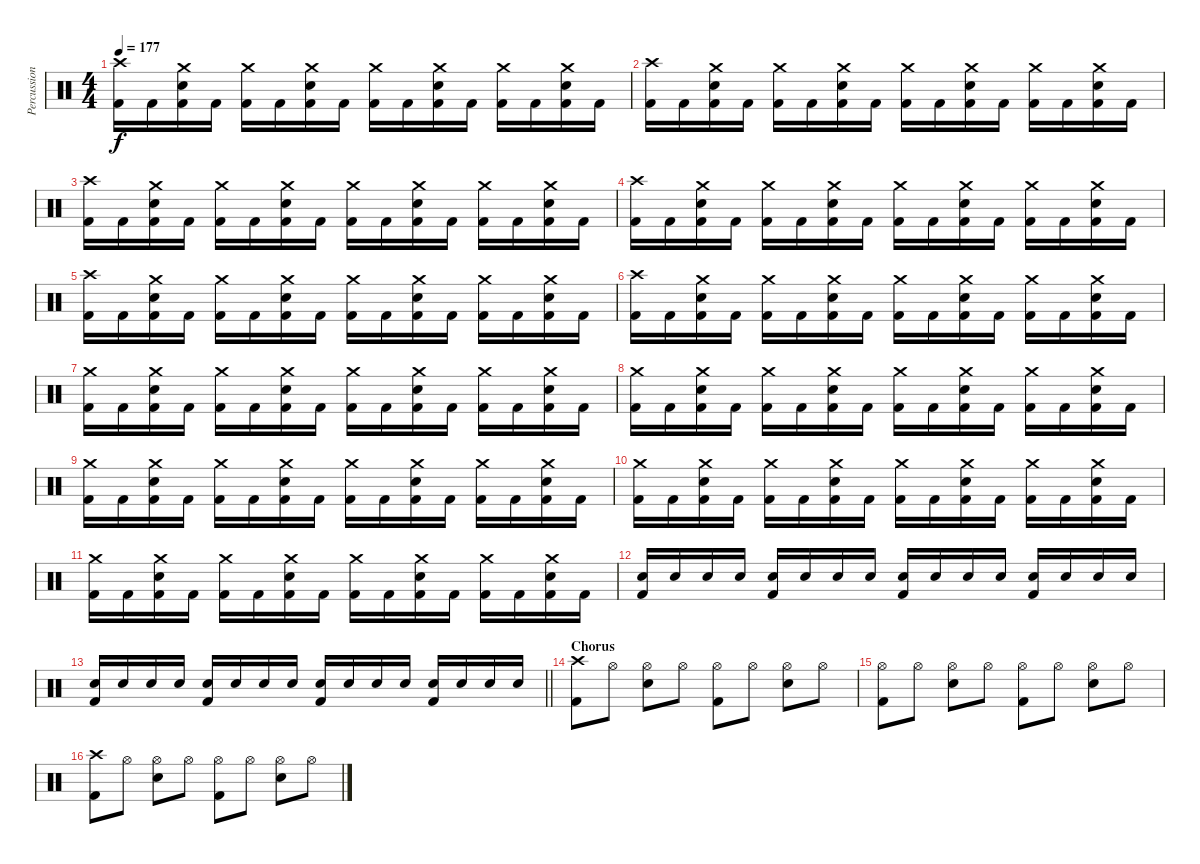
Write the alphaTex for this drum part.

\track ("Percussion" "Percussion") {instrument percussion}
\staff {score}
\articulation defaults
\ts (4 4)
\tempo 177
\clef neutral
\ks c
("Crash high (hit)" "Kick (hit) 2").16{dy f} "Kick (hit) 2".16 ("Crash medium (hit)" "Snare (hit) 2" "Kick (hit) 2").16 "Kick (hit) 2".16 ("Crash medium (hit)" "Kick (hit) 2").16 "Kick (hit) 2".16 ("Crash medium (hit)" "Snare (hit) 2" "Kick (hit) 2").16 "Kick (hit) 2".16 ("Crash medium (hit)" "Kick (hit) 2").16 "Kick (hit) 2".16 ("Crash medium (hit)" "Snare (hit) 2" "Kick (hit) 2").16 "Kick (hit) 2".16 ("Crash medium (hit)" "Kick (hit) 2").16 "Kick (hit) 2".16 ("Crash medium (hit)" "Snare (hit) 2" "Kick (hit) 2").16 "Kick (hit) 2".16 |
("Crash high (hit)" "Kick (hit) 2").16 "Kick (hit) 2".16 ("Crash medium (hit)" "Snare (hit) 2" "Kick (hit) 2").16 "Kick (hit) 2".16 ("Crash medium (hit)" "Kick (hit) 2").16 "Kick (hit) 2".16 ("Crash medium (hit)" "Snare (hit) 2" "Kick (hit) 2").16 "Kick (hit) 2".16 ("Crash medium (hit)" "Kick (hit) 2").16 "Kick (hit) 2".16 ("Crash medium (hit)" "Snare (hit) 2" "Kick (hit) 2").16 "Kick (hit) 2".16 ("Crash medium (hit)" "Kick (hit) 2").16 "Kick (hit) 2".16 ("Crash medium (hit)" "Snare (hit) 2" "Kick (hit) 2").16 "Kick (hit) 2".16 |
("Crash high (hit)" "Kick (hit) 2").16 "Kick (hit) 2".16 ("Crash medium (hit)" "Snare (hit) 2" "Kick (hit) 2").16 "Kick (hit) 2".16 ("Crash medium (hit)" "Kick (hit) 2").16 "Kick (hit) 2".16 ("Crash medium (hit)" "Snare (hit) 2" "Kick (hit) 2").16 "Kick (hit) 2".16 ("Crash medium (hit)" "Kick (hit) 2").16 "Kick (hit) 2".16 ("Crash medium (hit)" "Snare (hit) 2" "Kick (hit) 2").16 "Kick (hit) 2".16 ("Crash medium (hit)" "Kick (hit) 2").16 "Kick (hit) 2".16 ("Crash medium (hit)" "Snare (hit) 2" "Kick (hit) 2").16 "Kick (hit) 2".16 |
("Crash high (hit)" "Kick (hit) 2").16 "Kick (hit) 2".16 ("Crash medium (hit)" "Snare (hit) 2" "Kick (hit) 2").16 "Kick (hit) 2".16 ("Crash medium (hit)" "Kick (hit) 2").16 "Kick (hit) 2".16 ("Crash medium (hit)" "Snare (hit) 2" "Kick (hit) 2").16 "Kick (hit) 2".16 ("Crash medium (hit)" "Kick (hit) 2").16 "Kick (hit) 2".16 ("Crash medium (hit)" "Snare (hit) 2" "Kick (hit) 2").16 "Kick (hit) 2".16 ("Crash medium (hit)" "Kick (hit) 2").16 "Kick (hit) 2".16 ("Crash medium (hit)" "Snare (hit) 2" "Kick (hit) 2").16 "Kick (hit) 2".16 |
("Crash high (hit)" "Kick (hit) 2").16 "Kick (hit) 2".16 ("Crash medium (hit)" "Snare (hit) 2" "Kick (hit) 2").16 "Kick (hit) 2".16 ("Crash medium (hit)" "Kick (hit) 2").16 "Kick (hit) 2".16 ("Crash medium (hit)" "Snare (hit) 2" "Kick (hit) 2").16 "Kick (hit) 2".16 ("Crash medium (hit)" "Kick (hit) 2").16 "Kick (hit) 2".16 ("Crash medium (hit)" "Snare (hit) 2" "Kick (hit) 2").16 "Kick (hit) 2".16 ("Crash medium (hit)" "Kick (hit) 2").16 "Kick (hit) 2".16 ("Crash medium (hit)" "Snare (hit) 2" "Kick (hit) 2").16 "Kick (hit) 2".16 |
("Crash high (hit)" "Kick (hit) 2").16 "Kick (hit) 2".16 ("Crash medium (hit)" "Snare (hit) 2" "Kick (hit) 2").16 "Kick (hit) 2".16 ("Crash medium (hit)" "Kick (hit) 2").16 "Kick (hit) 2".16 ("Crash medium (hit)" "Snare (hit) 2" "Kick (hit) 2").16 "Kick (hit) 2".16 ("Crash medium (hit)" "Kick (hit) 2").16 "Kick (hit) 2".16 ("Crash medium (hit)" "Snare (hit) 2" "Kick (hit) 2").16 "Kick (hit) 2".16 ("Crash medium (hit)" "Kick (hit) 2").16 "Kick (hit) 2".16 ("Crash medium (hit)" "Snare (hit) 2" "Kick (hit) 2").16 "Kick (hit) 2".16 |
("Crash medium (hit)" "Kick (hit) 2").16 "Kick (hit) 2".16 ("Crash medium (hit)" "Snare (hit) 2" "Kick (hit) 2").16 "Kick (hit) 2".16 ("Crash medium (hit)" "Kick (hit) 2").16 "Kick (hit) 2".16 ("Crash medium (hit)" "Snare (hit) 2" "Kick (hit) 2").16 "Kick (hit) 2".16 ("Crash medium (hit)" "Kick (hit) 2").16 "Kick (hit) 2".16 ("Crash medium (hit)" "Snare (hit) 2" "Kick (hit) 2").16 "Kick (hit) 2".16 ("Crash medium (hit)" "Kick (hit) 2").16 "Kick (hit) 2".16 ("Crash medium (hit)" "Snare (hit) 2" "Kick (hit) 2").16 "Kick (hit) 2".16 |
("Crash medium (hit)" "Kick (hit) 2").16 "Kick (hit) 2".16 ("Crash medium (hit)" "Snare (hit) 2" "Kick (hit) 2").16 "Kick (hit) 2".16 ("Crash medium (hit)" "Kick (hit) 2").16 "Kick (hit) 2".16 ("Crash medium (hit)" "Snare (hit) 2" "Kick (hit) 2").16 "Kick (hit) 2".16 ("Crash medium (hit)" "Kick (hit) 2").16 "Kick (hit) 2".16 ("Crash medium (hit)" "Snare (hit) 2" "Kick (hit) 2").16 "Kick (hit) 2".16 ("Crash medium (hit)" "Kick (hit) 2").16 "Kick (hit) 2".16 ("Crash medium (hit)" "Snare (hit) 2" "Kick (hit) 2").16 "Kick (hit) 2".16 |
("Crash medium (hit)" "Kick (hit) 2").16 "Kick (hit) 2".16 ("Crash medium (hit)" "Snare (hit) 2" "Kick (hit) 2").16 "Kick (hit) 2".16 ("Crash medium (hit)" "Kick (hit) 2").16 "Kick (hit) 2".16 ("Crash medium (hit)" "Snare (hit) 2" "Kick (hit) 2").16 "Kick (hit) 2".16 ("Crash medium (hit)" "Kick (hit) 2").16 "Kick (hit) 2".16 ("Crash medium (hit)" "Snare (hit) 2" "Kick (hit) 2").16 "Kick (hit) 2".16 ("Crash medium (hit)" "Kick (hit) 2").16 "Kick (hit) 2".16 ("Crash medium (hit)" "Snare (hit) 2" "Kick (hit) 2").16 "Kick (hit) 2".16 |
("Crash medium (hit)" "Kick (hit) 2").16 "Kick (hit) 2".16 ("Crash medium (hit)" "Snare (hit) 2" "Kick (hit) 2").16 "Kick (hit) 2".16 ("Crash medium (hit)" "Kick (hit) 2").16 "Kick (hit) 2".16 ("Crash medium (hit)" "Snare (hit) 2" "Kick (hit) 2").16 "Kick (hit) 2".16 ("Crash medium (hit)" "Kick (hit) 2").16 "Kick (hit) 2".16 ("Crash medium (hit)" "Snare (hit) 2" "Kick (hit) 2").16 "Kick (hit) 2".16 ("Crash medium (hit)" "Kick (hit) 2").16 "Kick (hit) 2".16 ("Crash medium (hit)" "Snare (hit) 2" "Kick (hit) 2").16 "Kick (hit) 2".16 |
("Crash medium (hit)" "Kick (hit) 2").16 "Kick (hit) 2".16 ("Crash medium (hit)" "Snare (hit) 2" "Kick (hit) 2").16 "Kick (hit) 2".16 ("Crash medium (hit)" "Kick (hit) 2").16 "Kick (hit) 2".16 ("Crash medium (hit)" "Snare (hit) 2" "Kick (hit) 2").16 "Kick (hit) 2".16 ("Crash medium (hit)" "Kick (hit) 2").16 "Kick (hit) 2".16 ("Crash medium (hit)" "Snare (hit) 2" "Kick (hit) 2").16 "Kick (hit) 2".16 ("Crash medium (hit)" "Kick (hit) 2").16 "Kick (hit) 2".16 ("Crash medium (hit)" "Snare (hit) 2" "Kick (hit) 2").16 "Kick (hit) 2".16 |
("Snare (hit) 2" "Kick (hit) 2").16 "Snare (hit) 2".16 "Snare (hit) 2".16 "Snare (hit) 2".16 ("Snare (hit) 2" "Kick (hit) 2").16 "Snare (hit) 2".16 "Snare (hit) 2".16 "Snare (hit) 2".16 ("Snare (hit) 2" "Kick (hit) 2").16 "Snare (hit) 2".16 "Snare (hit) 2".16 "Snare (hit) 2".16 ("Snare (hit) 2" "Kick (hit) 2").16 "Snare (hit) 2".16 "Snare (hit) 2".16 "Snare (hit) 2".16 |
\barLineRight lightlight
("Snare (hit) 2" "Kick (hit) 2").16 "Snare (hit) 2".16 "Snare (hit) 2".16 "Snare (hit) 2".16 ("Snare (hit) 2" "Kick (hit) 2").16 "Snare (hit) 2".16 "Snare (hit) 2".16 "Snare (hit) 2".16 ("Snare (hit) 2" "Kick (hit) 2").16 "Snare (hit) 2".16 "Snare (hit) 2".16 "Snare (hit) 2".16 ("Snare (hit) 2" "Kick (hit) 2").16 "Snare (hit) 2".16 "Snare (hit) 2".16 "Snare (hit) 2".16 |
\section ("" "Chorus")
("Crash high (hit)" "Kick (hit) 2").8 "Hi-Hat (open)".8 ("Hi-Hat (open)" "Snare (hit) 2").8 "Hi-Hat (open)".8 ("Hi-Hat (open)" "Kick (hit) 2").8 "Hi-Hat (open)".8 ("Hi-Hat (open)" "Snare (hit) 2").8 "Hi-Hat (open)".8 |
("Hi-Hat (open)" "Kick (hit) 2").8 "Hi-Hat (open)".8 ("Hi-Hat (open)" "Snare (hit) 2").8 "Hi-Hat (open)".8 ("Hi-Hat (open)" "Kick (hit) 2").8 "Hi-Hat (open)".8 ("Hi-Hat (open)" "Snare (hit) 2").8 "Hi-Hat (open)".8 |
("Crash high (hit)" "Kick (hit) 2").8 "Hi-Hat (open)".8 ("Hi-Hat (open)" "Snare (hit) 2").8 "Hi-Hat (open)".8 ("Hi-Hat (open)" "Kick (hit) 2").8 "Hi-Hat (open)".8 ("Hi-Hat (open)" "Snare (hit) 2").8 "Hi-Hat (open)".8
